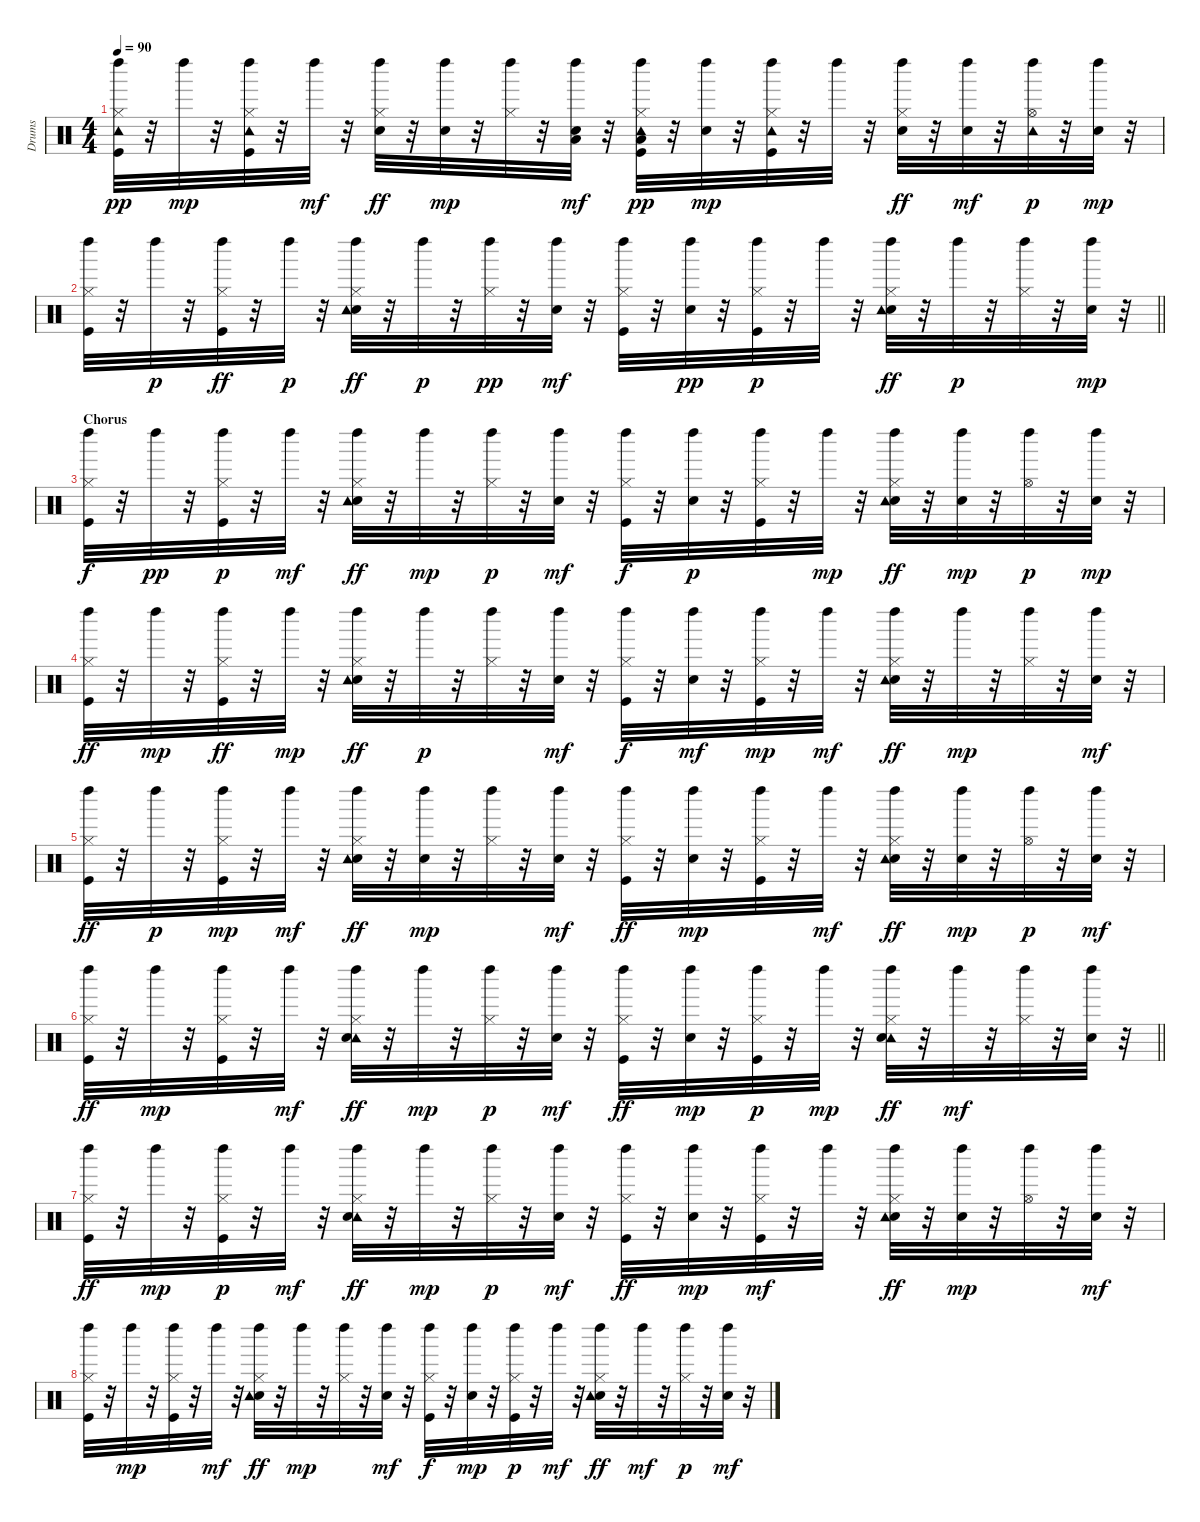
\track ("Drums" "Drums") {instrument percussion}
\staff {score}
\articulation defaults
\ts (4 4)
\tempo 90
\clef neutral
\ks c
("Hi-Hat (closed)" "Kick (hit)" "Tambourine (hit)" "Left Maraca (hit)").32{dy pp} r.32 "Left Maraca (hit)".32{dy mp} r.32 ("Tambourine (hit)" "Kick (hit)" "Hi-Hat (closed)" "Left Maraca (hit)").32 r.32 "Left Maraca (hit)".32{dy mf} r.32 ("Electric Snare (hit)" "Hi-Hat (closed)" "Left Maraca (hit)").32{dy ff} r.32 ("Electric Snare (hit)" "Left Maraca (hit)").32{dy mp} r.32 ("Hi-Hat (closed)" "Left Maraca (hit)").32 r.32 ("Electric Snare (hit)" "Left Maraca (hit)" "Low Tom (hit)").32{dy mf} r.32 ("Hi-Hat (closed)" "Kick (hit)" "Low Floor Tom (hit)" "Tambourine (hit)" "Left Maraca (hit)").32{dy pp} r.32 ("Left Maraca (hit)" "Electric Snare (hit)").32{dy mp} r.32 ("Hi-Hat (closed)" "Kick (hit)" "Tambourine (hit)" "Left Maraca (hit)").32 r.32 "Left Maraca (hit)".32 r.32 ("Hi-Hat (closed)" "Electric Snare (hit)" "Left Maraca (hit)").32{dy ff} r.32 ("Electric Snare (hit)" "Left Maraca (hit)").32{dy mf} r.32 ("Hi-Hat (open)" "Left Maraca (hit)" "Tambourine (hit)").32{dy p} r.32 ("Electric Snare (hit)" "Left Maraca (hit)").32{dy mp} r.32 |
\barLineRight lightlight
("Hi-Hat (closed)" "Kick (hit)" "Left Maraca (hit)").32 r.32 "Left Maraca (hit)".32{dy p} r.32 ("Hi-Hat (closed)" "Left Maraca (hit)" "Kick (hit)").32{dy ff} r.32 "Left Maraca (hit)".32{dy p} r.32 ("Electric Snare (hit)" "Tambourine (hit)" "Left Maraca (hit)" "Hi-Hat (closed)").32{dy ff} r.32 "Left Maraca (hit)".32{dy p} r.32 ("Left Maraca (hit)" "Hi-Hat (closed)").32{dy pp} r.32 ("Left Maraca (hit)" "Electric Snare (hit)").32{dy mf} r.32 ("Left Maraca (hit)" "Hi-Hat (closed)" "Kick (hit)").32 r.32 ("Electric Snare (hit)" "Left Maraca (hit)").32{dy pp} r.32 ("Hi-Hat (closed)" "Kick (hit)" "Left Maraca (hit)").32{dy p} r.32 "Left Maraca (hit)".32 r.32 ("Electric Snare (hit)" "Tambourine (hit)" "Hi-Hat (closed)" "Left Maraca (hit)").32{dy ff} r.32 "Left Maraca (hit)".32{dy p} r.32 ("Hi-Hat (closed)" "Left Maraca (hit)").32 r.32 ("Electric Snare (hit)" "Left Maraca (hit)").32{dy mp} r.32 |
\section ("" "Chorus")
("Hi-Hat (closed)" "Kick (hit)" "Left Maraca (hit)").32{dy f} r.32 "Left Maraca (hit)".32{dy pp} r.32 ("Kick (hit)" "Left Maraca (hit)" "Hi-Hat (closed)").32{dy p} r.32 "Left Maraca (hit)".32{dy mf} r.32 ("Electric Snare (hit)" "Tambourine (hit)" "Left Maraca (hit)" "Hi-Hat (closed)").32{dy ff} r.32 "Left Maraca (hit)".32{dy mp} r.32 ("Hi-Hat (closed)" "Left Maraca (hit)").32{dy p} r.32 ("Electric Snare (hit)" "Left Maraca (hit)").32{dy mf} r.32 ("Hi-Hat (closed)" "Kick (hit)" "Left Maraca (hit)").32{dy f} r.32 ("Electric Snare (hit)" "Left Maraca (hit)").32{dy p} r.32 ("Kick (hit)" "Hi-Hat (closed)" "Left Maraca (hit)").32 r.32 "Left Maraca (hit)".32{dy mp} r.32 ("Electric Snare (hit)" "Tambourine (hit)" "Left Maraca (hit)" "Hi-Hat (closed)").32{dy ff} r.32 ("Electric Snare (hit)" "Left Maraca (hit)").32{dy mp} r.32 ("Hi-Hat (open)" "Left Maraca (hit)").32{dy p} r.32 ("Electric Snare (hit)" "Left Maraca (hit)").32{dy mp} r.32 |
("Left Maraca (hit)" "Hi-Hat (closed)" "Kick (hit)").32{dy ff} r.32 "Left Maraca (hit)".32{dy mp} r.32 ("Hi-Hat (closed)" "Left Maraca (hit)" "Kick (hit)").32{dy ff} r.32 "Left Maraca (hit)".32{dy mp} r.32 ("Hi-Hat (closed)" "Electric Snare (hit)" "Tambourine (hit)" "Left Maraca (hit)").32{dy ff} r.32 "Left Maraca (hit)".32{dy p} r.32 ("Hi-Hat (closed)" "Left Maraca (hit)").32 r.32 ("Electric Snare (hit)" "Left Maraca (hit)").32{dy mf} r.32 ("Kick (hit)" "Hi-Hat (closed)" "Left Maraca (hit)").32{dy f} r.32 ("Left Maraca (hit)" "Electric Snare (hit)").32{dy mf} r.32 ("Hi-Hat (closed)" "Kick (hit)" "Left Maraca (hit)").32{dy mp} r.32 "Left Maraca (hit)".32{dy mf} r.32 ("Hi-Hat (closed)" "Electric Snare (hit)" "Tambourine (hit)" "Left Maraca (hit)").32{dy ff} r.32 "Left Maraca (hit)".32{dy mp} r.32 ("Hi-Hat (closed)" "Left Maraca (hit)").32 r.32 ("Electric Snare (hit)" "Left Maraca (hit)").32{dy mf} r.32 |
("Kick (hit)" "Left Maraca (hit)" "Hi-Hat (closed)").32{dy ff} r.32 "Left Maraca (hit)".32{dy p} r.32 ("Kick (hit)" "Left Maraca (hit)" "Hi-Hat (closed)").32{dy mp} r.32 "Left Maraca (hit)".32{dy mf} r.32 ("Electric Snare (hit)" "Tambourine (hit)" "Hi-Hat (closed)" "Left Maraca (hit)").32{dy ff} r.32 ("Electric Snare (hit)" "Left Maraca (hit)").32{dy mp} r.32 ("Hi-Hat (closed)" "Left Maraca (hit)").32 r.32 ("Electric Snare (hit)" "Left Maraca (hit)").32{dy mf} r.32 ("Kick (hit)" "Hi-Hat (closed)" "Left Maraca (hit)").32{dy ff} r.32 ("Electric Snare (hit)" "Left Maraca (hit)").32{dy mp} r.32 ("Kick (hit)" "Left Maraca (hit)" "Hi-Hat (closed)").32 r.32 "Left Maraca (hit)".32{dy mf} r.32 ("Hi-Hat (closed)" "Electric Snare (hit)" "Tambourine (hit)" "Left Maraca (hit)").32{dy ff} r.32 ("Electric Snare (hit)" "Left Maraca (hit)").32{dy mp} r.32 ("Hi-Hat (open)" "Left Maraca (hit)").32{dy p} r.32 ("Electric Snare (hit)" "Left Maraca (hit)").32{dy mf} r.32 |
\barLineRight lightlight
("Hi-Hat (closed)" "Left Maraca (hit)" "Kick (hit)").32{dy ff} r.32 "Left Maraca (hit)".32{dy mp} r.32 ("Hi-Hat (closed)" "Kick (hit)" "Left Maraca (hit)").32 r.32 "Left Maraca (hit)".32{dy mf} r.32 ("Tambourine (hit)" "Hi-Hat (closed)" "Electric Snare (hit)" "Left Maraca (hit)").32{dy ff} r.32 "Left Maraca (hit)".32{dy mp} r.32 ("Hi-Hat (closed)" "Left Maraca (hit)").32{dy p} r.32 ("Left Maraca (hit)" "Electric Snare (hit)").32{dy mf} r.32 ("Kick (hit)" "Hi-Hat (closed)" "Left Maraca (hit)").32{dy ff} r.32 ("Electric Snare (hit)" "Left Maraca (hit)").32{dy mp} r.32 ("Hi-Hat (closed)" "Kick (hit)" "Left Maraca (hit)").32{dy p} r.32 "Left Maraca (hit)".32{dy mp} r.32 ("Tambourine (hit)" "Hi-Hat (closed)" "Electric Snare (hit)" "Left Maraca (hit)").32{dy ff} r.32 "Left Maraca (hit)".32{dy mf} r.32 ("Left Maraca (hit)" "Hi-Hat (closed)").32 r.32 ("Left Maraca (hit)" "Electric Snare (hit)").32 r.32 |
("Kick (hit)" "Hi-Hat (closed)" "Left Maraca (hit)").32{dy ff} r.32 "Left Maraca (hit)".32{dy mp} r.32 ("Kick (hit)" "Hi-Hat (closed)" "Left Maraca (hit)").32{dy p} r.32 "Left Maraca (hit)".32{dy mf} r.32 ("Tambourine (hit)" "Electric Snare (hit)" "Hi-Hat (closed)" "Left Maraca (hit)").32{dy ff} r.32 "Left Maraca (hit)".32{dy mp} r.32 ("Hi-Hat (closed)" "Left Maraca (hit)").32{dy p} r.32 ("Electric Snare (hit)" "Left Maraca (hit)").32{dy mf} r.32 ("Hi-Hat (closed)" "Kick (hit)" "Left Maraca (hit)").32{dy ff} r.32 ("Electric Snare (hit)" "Left Maraca (hit)").32{dy mp} r.32 ("Hi-Hat (closed)" "Kick (hit)" "Left Maraca (hit)").32{dy mf} r.32 "Left Maraca (hit)".32 r.32 ("Hi-Hat (closed)" "Electric Snare (hit)" "Tambourine (hit)" "Left Maraca (hit)").32{dy ff} r.32 ("Electric Snare (hit)" "Left Maraca (hit)").32{dy mp} r.32 ("Hi-Hat (open)" "Left Maraca (hit)").32 r.32 ("Electric Snare (hit)" "Left Maraca (hit)").32{dy mf} r.32 |
("Left Maraca (hit)" "Kick (hit)" "Hi-Hat (closed)").32 r.32 "Left Maraca (hit)".32{dy mp} r.32 ("Kick (hit)" "Hi-Hat (closed)" "Left Maraca (hit)").32 r.32 "Left Maraca (hit)".32{dy mf} r.32 ("Electric Snare (hit)" "Hi-Hat (closed)" "Tambourine (hit)" "Left Maraca (hit)").32{dy ff} r.32 "Left Maraca (hit)".32{dy mp} r.32 ("Hi-Hat (closed)" "Left Maraca (hit)").32 r.32 ("Electric Snare (hit)" "Left Maraca (hit)").32{dy mf} r.32 ("Hi-Hat (closed)" "Kick (hit)" "Left Maraca (hit)").32{dy f} r.32 ("Electric Snare (hit)" "Left Maraca (hit)").32{dy mp} r.32 ("Hi-Hat (closed)" "Kick (hit)" "Left Maraca (hit)").32{dy p} r.32 "Left Maraca (hit)".32{dy mf} r.32 ("Electric Snare (hit)" "Tambourine (hit)" "Left Maraca (hit)" "Hi-Hat (closed)").32{dy ff} r.32 "Left Maraca (hit)".32{dy mf} r.32 ("Hi-Hat (closed)" "Left Maraca (hit)").32{dy p} r.32 ("Electric Snare (hit)" "Left Maraca (hit)").32{dy mf} r.32
